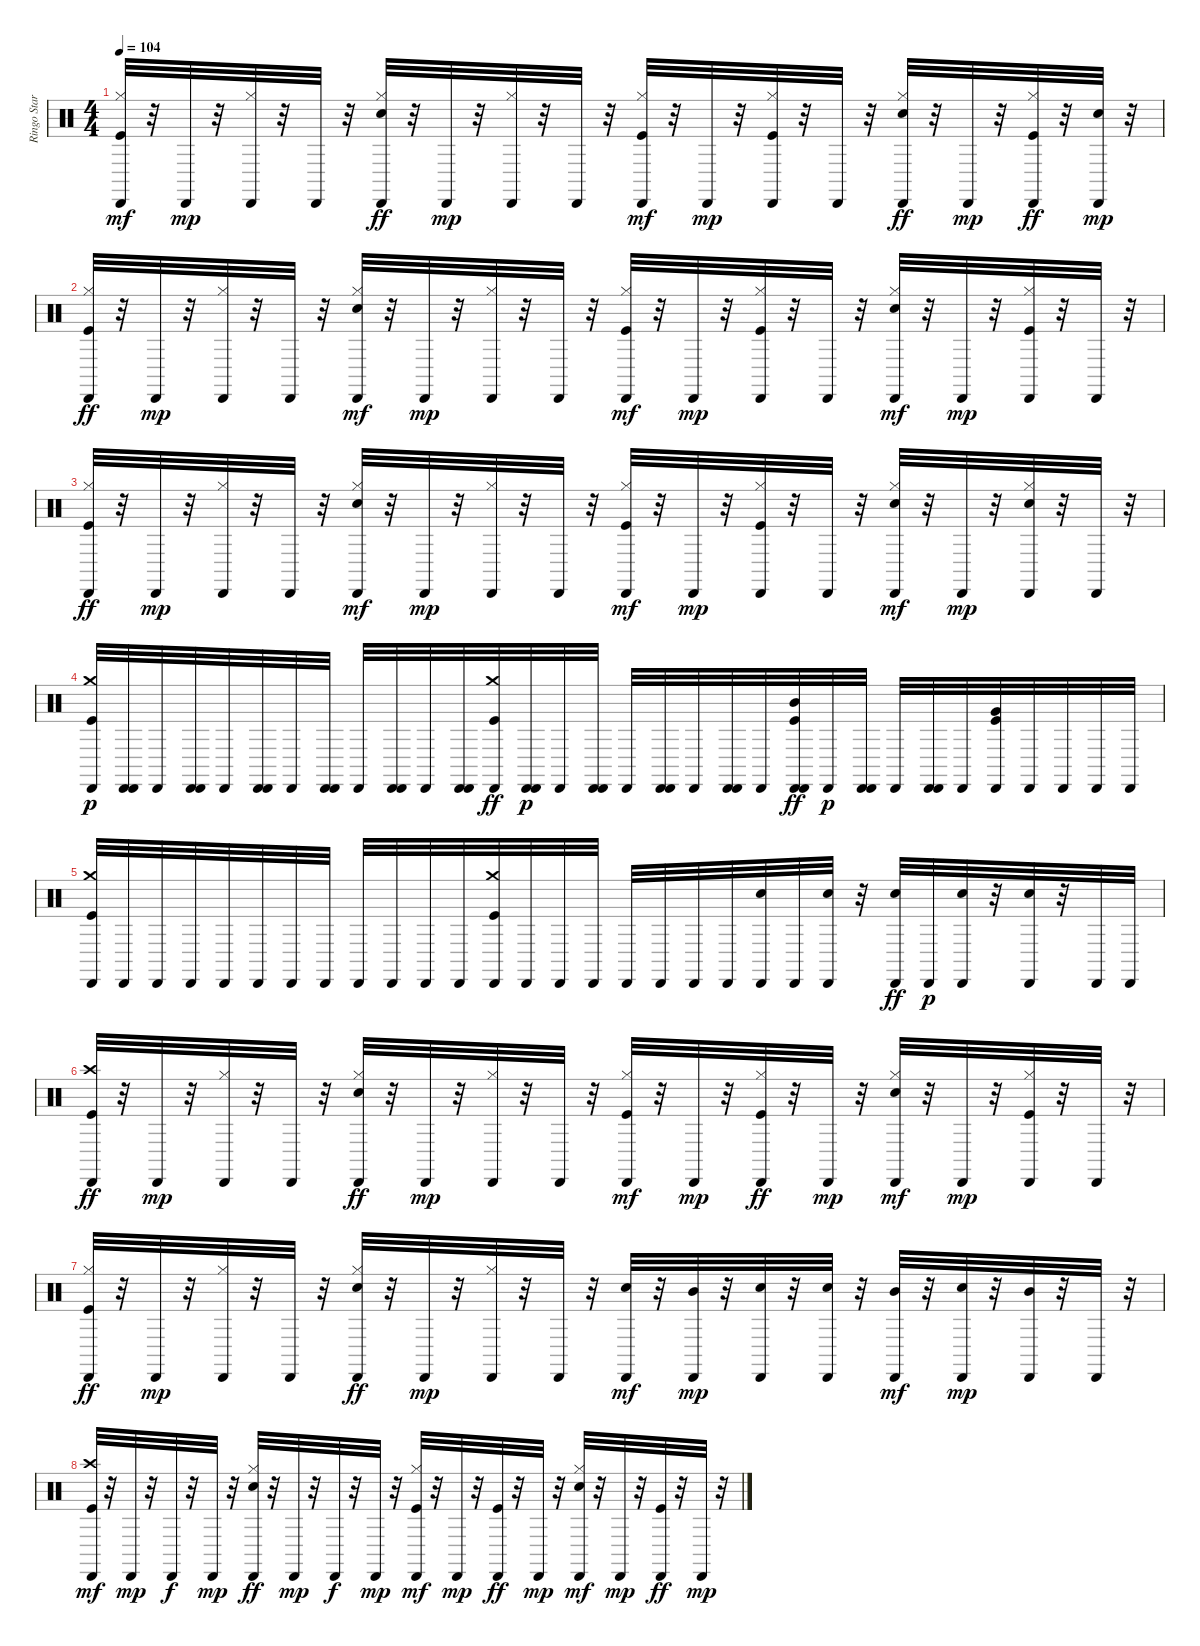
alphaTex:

\track ("Ringo Starr - Drums" "Ringo Star") {instrument percussion}
\staff {score}
\articulation defaults
\ts (4 4)
\tempo 104
\clef neutral
\ks c
("Hi-Hat (closed)" "Kick (hit)" "Cabasa (hit)").32{dy mf} r.32 "Cabasa (hit)".32{dy mp} r.32 ("Hi-Hat (closed)" "Cabasa (hit)").32 r.32 "Cabasa (hit)".32 r.32 ("Hi-Hat (closed)" "Cabasa (hit)" "Snare (hit) 2").32{dy ff} r.32 "Cabasa (hit)".32{dy mp} r.32 ("Hi-Hat (closed)" "Cabasa (hit)").32 r.32 "Cabasa (hit)".32 r.32 ("Hi-Hat (closed)" "Kick (hit)" "Cabasa (hit)").32{dy mf} r.32 "Cabasa (hit)".32{dy mp} r.32 ("Hi-Hat (closed)" "Kick (hit)" "Cabasa (hit)").32 r.32 "Cabasa (hit)".32 r.32 ("Hi-Hat (closed)" "Cabasa (hit)" "Snare (hit) 2").32{dy ff} r.32 "Cabasa (hit)".32{dy mp} r.32 ("Hi-Hat (closed)" "Cabasa (hit)" "Kick (hit)").32{dy ff} r.32 ("Snare (hit) 2" "Cabasa (hit)").32{dy mp} r.32 |
("Hi-Hat (closed)" "Cabasa (hit)" "Kick (hit)").32{dy ff} r.32 "Cabasa (hit)".32{dy mp} r.32 ("Hi-Hat (closed)" "Cabasa (hit)").32 r.32 "Cabasa (hit)".32 r.32 ("Hi-Hat (closed)" "Snare (hit) 2" "Cabasa (hit)").32{dy mf} r.32 "Cabasa (hit)".32{dy mp} r.32 ("Hi-Hat (closed)" "Cabasa (hit)").32 r.32 "Cabasa (hit)".32 r.32 ("Hi-Hat (closed)" "Kick (hit)" "Cabasa (hit)").32{dy mf} r.32 "Cabasa (hit)".32{dy mp} r.32 ("Hi-Hat (closed)" "Kick (hit)" "Cabasa (hit)").32 r.32 "Cabasa (hit)".32 r.32 ("Hi-Hat (closed)" "Snare (hit) 2" "Cabasa (hit)").32{dy mf} r.32 "Cabasa (hit)".32{dy mp} r.32 ("Hi-Hat (closed)" "Kick (hit)" "Cabasa (hit)").32 r.32 "Cabasa (hit)".32 r.32 |
("Hi-Hat (closed)" "Cabasa (hit)" "Kick (hit)").32{dy ff} r.32 "Cabasa (hit)".32{dy mp} r.32 ("Hi-Hat (closed)" "Cabasa (hit)").32 r.32 "Cabasa (hit)".32 r.32 ("Hi-Hat (closed)" "Snare (hit) 2" "Cabasa (hit)").32{dy mf} r.32 "Cabasa (hit)".32{dy mp} r.32 ("Hi-Hat (closed)" "Cabasa (hit)").32 r.32 "Cabasa (hit)".32 r.32 ("Hi-Hat (closed)" "Kick (hit)" "Cabasa (hit)").32{dy mf} r.32 "Cabasa (hit)".32{dy mp} r.32 ("Hi-Hat (closed)" "Kick (hit)" "Cabasa (hit)").32 r.32 "Cabasa (hit)".32 r.32 ("Hi-Hat (closed)" "Snare (hit) 2" "Cabasa (hit)").32{dy mf} r.32 "Cabasa (hit)".32{dy mp} r.32 ("Hi-Hat (closed)" "Cabasa (hit)" "Snare (hit) 2").32 r.32 "Cabasa (hit)".32 r.32 |
("Kick (hit)" "Cabasa (hit)" "Crash medium (hit)").32{dy p} ("Cabasa (hit)" "Cabasa (hit)").32 "Cabasa (hit)".32 ("Cabasa (hit)" "Cabasa (hit)").32 "Cabasa (hit)".32 ("Cabasa (hit)" "Cabasa (hit)").32 "Cabasa (hit)".32 ("Cabasa (hit)" "Cabasa (hit)").32 "Cabasa (hit)".32 ("Cabasa (hit)" "Cabasa (hit)").32 "Cabasa (hit)".32 ("Cabasa (hit)" "Cabasa (hit)").32 ("Cabasa (hit)" "Crash medium (hit)" "Kick (hit)").32{dy ff} ("Cabasa (hit)" "Cabasa (hit)").32{dy p} "Cabasa (hit)".32 ("Cabasa (hit)" "Cabasa (hit)").32 "Cabasa (hit)".32 ("Cabasa (hit)" "Cabasa (hit)").32 "Cabasa (hit)".32 ("Cabasa (hit)" "Cabasa (hit)").32 "Cabasa (hit)".32 ("Cabasa (hit)" "Kick (hit)" "Cabasa (hit)" "Mid Tom (hit)").32{dy ff} "Cabasa (hit)".32{dy p} ("Cabasa (hit)" "Cabasa (hit)").32 "Cabasa (hit)".32 ("Cabasa (hit)" "Cabasa (hit)").32 "Cabasa (hit)".32 ("Very Low Tom (hit)" "Kick (hit)" "Cabasa (hit)").32 "Cabasa (hit)".32 "Cabasa (hit)".32 "Cabasa (hit)".32 "Cabasa (hit)".32 |
("Kick (hit)" "Crash medium (hit)" "Cabasa (hit)").32 "Cabasa (hit)".32 "Cabasa (hit)".32 "Cabasa (hit)".32 "Cabasa (hit)".32 "Cabasa (hit)".32 "Cabasa (hit)".32 "Cabasa (hit)".32 "Cabasa (hit)".32 "Cabasa (hit)".32 "Cabasa (hit)".32 "Cabasa (hit)".32 ("Crash medium (hit)" "Kick (hit)" "Cabasa (hit)").32 "Cabasa (hit)".32 "Cabasa (hit)".32 "Cabasa (hit)".32 "Cabasa (hit)".32 "Cabasa (hit)".32 "Cabasa (hit)".32 "Cabasa (hit)".32 ("Cabasa (hit)" "Snare (hit) 2").32 "Cabasa (hit)".32 ("Snare (hit) 2" "Cabasa (hit)").32 r.32 ("Cabasa (hit)" "Snare (hit) 2").32{dy ff} "Cabasa (hit)".32{dy p} ("Snare (hit) 2" "Cabasa (hit)").32 r.32 ("Snare (hit) 2" "Cabasa (hit)").32 r.32 "Cabasa (hit)".32 "Cabasa (hit)".32 |
("Cabasa (hit)" "Crash high (hit)" "Kick (hit)").32{dy ff} r.32 "Cabasa (hit)".32{dy mp} r.32 ("Hi-Hat (closed)" "Cabasa (hit)").32 r.32 "Cabasa (hit)".32 r.32 ("Hi-Hat (closed)" "Cabasa (hit)" "Snare (hit) 2").32{dy ff} r.32 "Cabasa (hit)".32{dy mp} r.32 ("Hi-Hat (closed)" "Cabasa (hit)").32 r.32 "Cabasa (hit)".32 r.32 ("Hi-Hat (closed)" "Kick (hit)" "Cabasa (hit)").32{dy mf} r.32 "Cabasa (hit)".32{dy mp} r.32 ("Hi-Hat (closed)" "Cabasa (hit)" "Kick (hit)").32{dy ff} r.32 "Cabasa (hit)".32{dy mp} r.32 ("Hi-Hat (closed)" "Snare (hit) 2" "Cabasa (hit)").32{dy mf} r.32 "Cabasa (hit)".32{dy mp} r.32 ("Hi-Hat (closed)" "Kick (hit)" "Cabasa (hit)").32 r.32 "Cabasa (hit)".32 r.32 |
("Hi-Hat (closed)" "Cabasa (hit)" "Kick (hit)").32{dy ff} r.32 "Cabasa (hit)".32{dy mp} r.32 ("Hi-Hat (closed)" "Cabasa (hit)").32 r.32 "Cabasa (hit)".32 r.32 ("Hi-Hat (closed)" "Cabasa (hit)" "Snare (hit) 2").32{dy ff} r.32 "Cabasa (hit)".32{dy mp} r.32 ("Hi-Hat (closed)" "Cabasa (hit)").32 r.32 "Cabasa (hit)".32 r.32 ("Cabasa (hit)" "Snare (hit) 2").32{dy mf} r.32 ("Mid Tom (hit)" "Cabasa (hit)").32{dy mp} r.32 ("Snare (hit) 2" "Cabasa (hit)").32 r.32 ("Snare (hit) 2" "Cabasa (hit)").32 r.32 ("Mid Tom (hit)" "Cabasa (hit)").32{dy mf} r.32 ("Cabasa (hit)" "Snare (hit) 2").32{dy mp} r.32 ("Mid Tom (hit)" "Cabasa (hit)").32 r.32 "Cabasa (hit)".32 r.32 |
("Kick (hit)" "Crash high (hit)" "Cabasa (hit)").32{dy mf} r.32 "Cabasa (hit)".32{dy mp} r.32 "Cabasa (hit)".32{dy f} r.32 "Cabasa (hit)".32{dy mp} r.32 ("Hi-Hat (closed)" "Cabasa (hit)" "Snare (hit) 2").32{dy ff} r.32 "Cabasa (hit)".32{dy mp} r.32 "Cabasa (hit)".32{dy f} r.32 "Cabasa (hit)".32{dy mp} r.32 ("Hi-Hat (closed)" "Kick (hit)" "Cabasa (hit)").32{dy mf} r.32 "Cabasa (hit)".32{dy mp} r.32 ("Cabasa (hit)" "Kick (hit)").32{dy ff} r.32 "Cabasa (hit)".32{dy mp} r.32 ("Hi-Hat (closed)" "Snare (hit) 2" "Cabasa (hit)").32{dy mf} r.32 "Cabasa (hit)".32{dy mp} r.32 ("Kick (hit)" "Cabasa (hit)").32{dy ff} r.32 "Cabasa (hit)".32{dy mp} r.32
